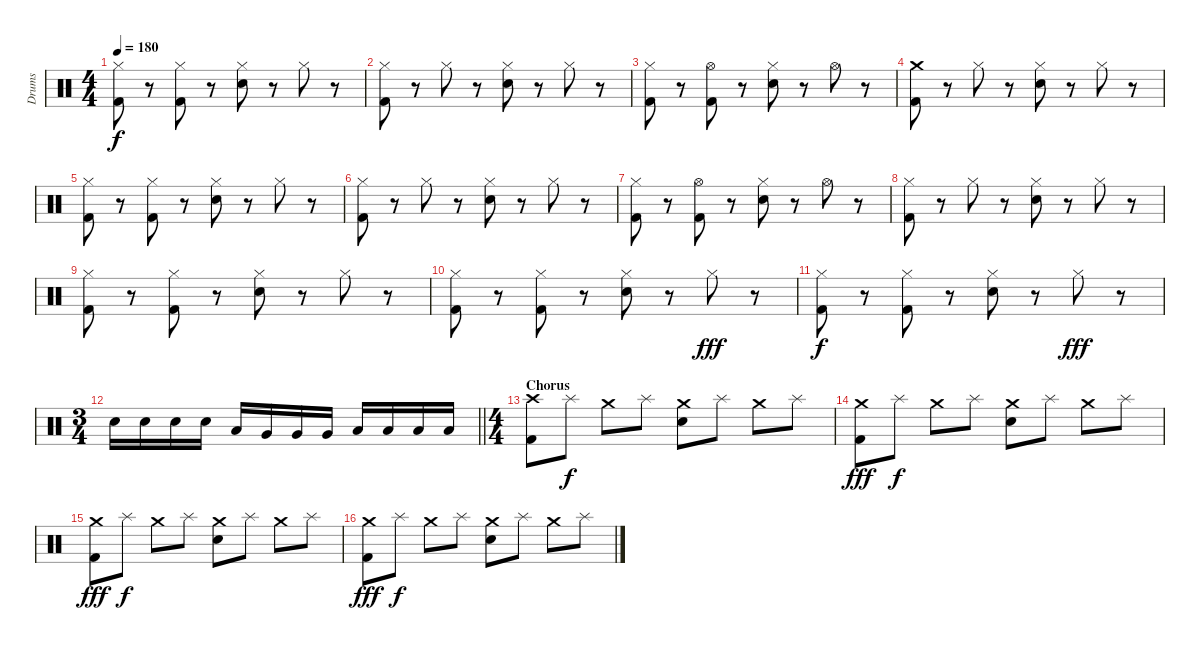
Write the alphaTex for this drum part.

\track ("Drums" "Drums") {instrument percussion}
\staff {score}
\articulation defaults
\ts (4 4)
\tempo 180
\clef neutral
\ks c
("Hi-Hat (closed)" "Kick (hit) 2").8{dy f} r.8 ("Hi-Hat (closed)" "Kick (hit) 2").8 r.8 ("Hi-Hat (closed)" "Electric Snare (hit)").8 r.8 "Hi-Hat (closed)".8 r.8 |
("Hi-Hat (closed)" "Kick (hit) 2").8 r.8 "Hi-Hat (closed)".8 r.8 ("Hi-Hat (closed)" "Electric Snare (hit)").8 r.8 "Hi-Hat (closed)".8 r.8 |
("Hi-Hat (closed)" "Kick (hit) 2").8 r.8 ("Hi-Hat (open)" "Kick (hit) 2").8 r.8 ("Hi-Hat (closed)" "Electric Snare (hit)").8 r.8 "Hi-Hat (open)".8 r.8 |
("Crash medium (hit)" "Kick (hit) 2").8 r.8 "Hi-Hat (closed)".8 r.8 ("Hi-Hat (closed)" "Electric Snare (hit)").8 r.8 "Hi-Hat (closed)".8 r.8 |
("Hi-Hat (closed)" "Kick (hit) 2").8 r.8 ("Hi-Hat (closed)" "Kick (hit) 2").8 r.8 ("Hi-Hat (closed)" "Electric Snare (hit)").8 r.8 "Hi-Hat (closed)".8 r.8 |
("Hi-Hat (closed)" "Kick (hit) 2").8 r.8 "Hi-Hat (closed)".8 r.8 ("Hi-Hat (closed)" "Electric Snare (hit)").8 r.8 "Hi-Hat (closed)".8 r.8 |
("Hi-Hat (closed)" "Kick (hit) 2").8 r.8 ("Hi-Hat (open)" "Kick (hit) 2").8 r.8 ("Hi-Hat (closed)" "Electric Snare (hit)").8 r.8 "Hi-Hat (open)".8 r.8 |
("Hi-Hat (closed)" "Kick (hit) 2").8 r.8 "Hi-Hat (closed)".8 r.8 ("Hi-Hat (closed)" "Electric Snare (hit)").8 r.8 "Hi-Hat (closed)".8 r.8 |
("Hi-Hat (closed)" "Kick (hit) 2").8 r.8 ("Hi-Hat (closed)" "Kick (hit) 2").8 r.8 ("Hi-Hat (closed)" "Electric Snare (hit)").8 r.8 "Hi-Hat (closed)".8 r.8 |
("Hi-Hat (closed)" "Kick (hit) 2").8 r.8 ("Hi-Hat (closed)" "Kick (hit) 2").8 r.8 ("Hi-Hat (closed)" "Electric Snare (hit)").8 r.8 "Hi-Hat (closed)".8{dy fff} r.8 |
("Hi-Hat (closed)" "Kick (hit) 2").8{dy f} r.8 ("Hi-Hat (closed)" "Kick (hit) 2").8 r.8 ("Hi-Hat (closed)" "Electric Snare (hit)").8 r.8 "Hi-Hat (closed)".8{dy fff} r.8 |
\ts (3 4)
\barLineRight lightlight "Electric Snare (hit)".16 "Electric Snare (hit)".16 "Electric Snare (hit)".16 "Electric Snare (hit)".16 "Low Tom (hit)".16 "Very Low Tom (hit)".16 "Very Low Tom (hit)".16 "Very Low Tom (hit)".16 "Low Floor Tom (hit)".16 "Low Floor Tom (hit)".16 "Low Floor Tom (hit)".16 "Low Floor Tom (hit)".16
|
\ts (4 4)
\section ("" "Chorus")
("Crash high (hit)" "Kick (hit) 2").8 "Splash (hit)".8{dy f} "Crash medium (hit)".8 "Splash (hit)".8 ("Crash medium (hit)" "Electric Snare (hit)").8 "Splash (hit)".8 "Crash medium (hit)".8 "Splash (hit)".8 |
("Crash medium (hit)" "Kick (hit) 2").8{dy fff} "Splash (hit)".8{dy f} "Crash medium (hit)".8 "Splash (hit)".8 ("Crash medium (hit)" "Electric Snare (hit)").8 "Splash (hit)".8 "Crash medium (hit)".8 "Splash (hit)".8 |
("Crash medium (hit)" "Kick (hit) 2").8{dy fff} "Splash (hit)".8{dy f} "Crash medium (hit)".8 "Splash (hit)".8 ("Crash medium (hit)" "Electric Snare (hit)").8 "Splash (hit)".8 "Crash medium (hit)".8 "Splash (hit)".8 |
("Crash medium (hit)" "Kick (hit) 2").8{dy fff} "Splash (hit)".8{dy f} "Crash medium (hit)".8 "Splash (hit)".8 ("Crash medium (hit)" "Electric Snare (hit)").8 "Splash (hit)".8 "Crash medium (hit)".8 "Splash (hit)".8
